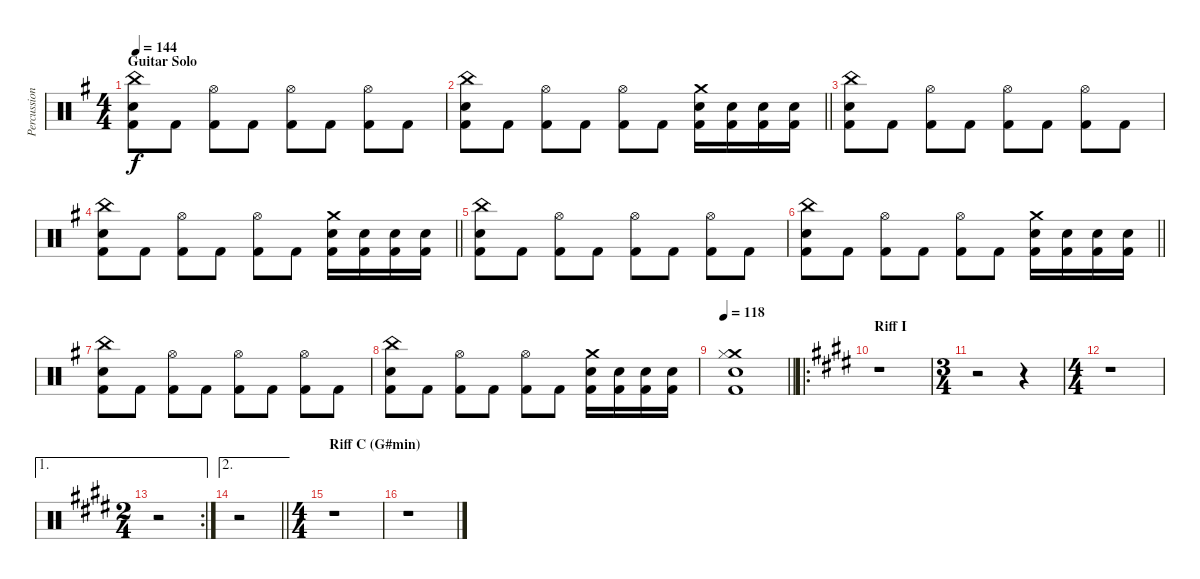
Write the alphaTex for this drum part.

\track ("Percussion" "Percussion") {instrument percussion}
\staff {score}
\articulation defaults
\ts (4 4)
\section ("" "Guitar Solo")
\tempo 144
\clef neutral
\ks eminor
("China (hit)" "Snare (hit) 2" "Kick (hit) 2").8{dy f} "Kick (hit) 2".8 ("Hi-Hat (open)" "Kick (hit) 2").8 "Kick (hit) 2".8 ("Hi-Hat (open)" "Kick (hit) 2").8 "Kick (hit) 2".8 ("Hi-Hat (open)" "Kick (hit) 2").8 "Kick (hit) 2".8 |
\barLineRight lightlight
("China (hit)" "Snare (hit) 2" "Kick (hit) 2").8 "Kick (hit) 2".8 ("Hi-Hat (open)" "Kick (hit) 2").8 "Kick (hit) 2".8 ("Hi-Hat (open)" "Kick (hit) 2").8 "Kick (hit) 2".8 ("Crash medium (hit)" "Snare (hit) 2" "Kick (hit) 2").16 ("Snare (hit) 2" "Kick (hit) 2").16 ("Snare (hit) 2" "Kick (hit) 2").16 ("Snare (hit) 2" "Kick (hit) 2").16 |
("China (hit)" "Snare (hit) 2" "Kick (hit) 2").8 "Kick (hit) 2".8 ("Hi-Hat (open)" "Kick (hit) 2").8 "Kick (hit) 2".8 ("Hi-Hat (open)" "Kick (hit) 2").8 "Kick (hit) 2".8 ("Hi-Hat (open)" "Kick (hit) 2").8 "Kick (hit) 2".8 |
\barLineRight lightlight
("China (hit)" "Snare (hit) 2" "Kick (hit) 2").8 "Kick (hit) 2".8 ("Hi-Hat (open)" "Kick (hit) 2").8 "Kick (hit) 2".8 ("Hi-Hat (open)" "Kick (hit) 2").8 "Kick (hit) 2".8 ("Crash medium (hit)" "Snare (hit) 2" "Kick (hit) 2").16 ("Snare (hit) 2" "Kick (hit) 2").16 ("Snare (hit) 2" "Kick (hit) 2").16 ("Snare (hit) 2" "Kick (hit) 2").16 |
("China (hit)" "Snare (hit) 2" "Kick (hit) 2").8 "Kick (hit) 2".8 ("Hi-Hat (open)" "Kick (hit) 2").8 "Kick (hit) 2".8 ("Hi-Hat (open)" "Kick (hit) 2").8 "Kick (hit) 2".8 ("Hi-Hat (open)" "Kick (hit) 2").8 "Kick (hit) 2".8 |
\barLineRight lightlight
("China (hit)" "Snare (hit) 2" "Kick (hit) 2").8 "Kick (hit) 2".8 ("Hi-Hat (open)" "Kick (hit) 2").8 "Kick (hit) 2".8 ("Hi-Hat (open)" "Kick (hit) 2").8 "Kick (hit) 2".8 ("Crash medium (hit)" "Snare (hit) 2" "Kick (hit) 2").16 ("Snare (hit) 2" "Kick (hit) 2").16 ("Snare (hit) 2" "Kick (hit) 2").16 ("Snare (hit) 2" "Kick (hit) 2").16 |
("China (hit)" "Snare (hit) 2" "Kick (hit) 2").8 "Kick (hit) 2".8 ("Hi-Hat (open)" "Kick (hit) 2").8 "Kick (hit) 2".8 ("Hi-Hat (open)" "Kick (hit) 2").8 "Kick (hit) 2".8 ("Hi-Hat (open)" "Kick (hit) 2").8 "Kick (hit) 2".8 |
("China (hit)" "Snare (hit) 2" "Kick (hit) 2").8 "Kick (hit) 2".8 ("Hi-Hat (open)" "Kick (hit) 2").8 "Kick (hit) 2".8 ("Hi-Hat (open)" "Kick (hit) 2").8 "Kick (hit) 2".8 ("Crash medium (hit)" "Snare (hit) 2" "Kick (hit) 2").16 ("Snare (hit) 2" "Kick (hit) 2").16 ("Snare (hit) 2" "Kick (hit) 2").16 ("Snare (hit) 2" "Kick (hit) 2").16 |
\tempo 118
\barLineRight lightlight
("Crash medium (hit)" "Hi-Hat (closed)" "Snare (hit) 2" "Kick (hit) 2").1 |
\ro
\section ("" "Riff I")
\ks c#minor
r.1 |
\ts (3 4)
r.2 r.4 |
\ts (4 4)
r.1 |
\ae 1
\rc 2
\ts (2 4)
r.2 |
\ae 2
\barLineRight lightlight
r.2 |
\ts (4 4)
\section ("" "Riff C (G#min)")
r.1 |
r.1
